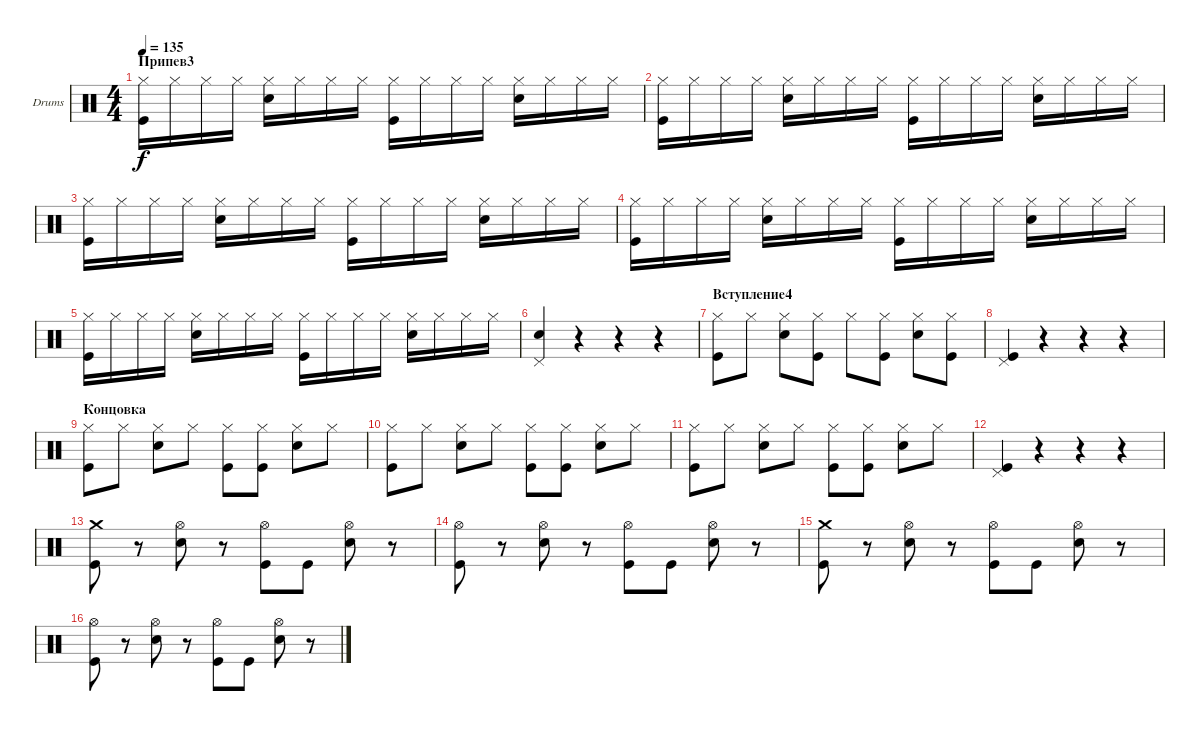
\defaultSystemsLayout 4
\bracketExtendMode groupsimilarinstruments
\firstSystemTrackNameOrientation horizontal
\otherSystemsTrackNameOrientation horizontal
\track ("Drumkit" "Drums") {instrument percussion}
\staff {score}
\articulation defaults
\ts (4 4)
\section ("" "Припев3")
\tempo 135
\clef neutral
\ks c
("Hi-Hat (closed)" "Kick (hit)").16{dy f} "Hi-Hat (closed)".16 "Hi-Hat (closed)".16 "Hi-Hat (closed)".16 ("Hi-Hat (closed)" "Snare (hit) 2").16 "Hi-Hat (closed)".16 "Hi-Hat (closed)".16 "Hi-Hat (closed)".16 ("Hi-Hat (closed)" "Kick (hit)").16 "Hi-Hat (closed)".16 "Hi-Hat (closed)".16 "Hi-Hat (closed)".16 ("Hi-Hat (closed)" "Snare (hit) 2").16 "Hi-Hat (closed)".16 "Hi-Hat (closed)".16 "Hi-Hat (closed)".16 |
("Hi-Hat (closed)" "Kick (hit)").16 "Hi-Hat (closed)".16 "Hi-Hat (closed)".16 "Hi-Hat (closed)".16 ("Hi-Hat (closed)" "Snare (hit) 2").16 "Hi-Hat (closed)".16 "Hi-Hat (closed)".16 "Hi-Hat (closed)".16 ("Hi-Hat (closed)" "Kick (hit)").16 "Hi-Hat (closed)".16 "Hi-Hat (closed)".16 "Hi-Hat (closed)".16 ("Hi-Hat (closed)" "Snare (hit) 2").16 "Hi-Hat (closed)".16 "Hi-Hat (closed)".16 "Hi-Hat (closed)".16 |
("Hi-Hat (closed)" "Kick (hit)").16 "Hi-Hat (closed)".16 "Hi-Hat (closed)".16 "Hi-Hat (closed)".16 ("Hi-Hat (closed)" "Snare (hit) 2").16 "Hi-Hat (closed)".16 "Hi-Hat (closed)".16 "Hi-Hat (closed)".16 ("Hi-Hat (closed)" "Kick (hit)").16 "Hi-Hat (closed)".16 "Hi-Hat (closed)".16 "Hi-Hat (closed)".16 ("Hi-Hat (closed)" "Snare (hit) 2").16 "Hi-Hat (closed)".16 "Hi-Hat (closed)".16 "Hi-Hat (closed)".16 |
("Hi-Hat (closed)" "Kick (hit)").16 "Hi-Hat (closed)".16 "Hi-Hat (closed)".16 "Hi-Hat (closed)".16 ("Hi-Hat (closed)" "Snare (hit) 2").16 "Hi-Hat (closed)".16 "Hi-Hat (closed)".16 "Hi-Hat (closed)".16 ("Hi-Hat (closed)" "Kick (hit)").16 "Hi-Hat (closed)".16 "Hi-Hat (closed)".16 "Hi-Hat (closed)".16 ("Hi-Hat (closed)" "Snare (hit) 2").16 "Hi-Hat (closed)".16 "Hi-Hat (closed)".16 "Hi-Hat (closed)".16 |
("Hi-Hat (closed)" "Kick (hit)").16 "Hi-Hat (closed)".16 "Hi-Hat (closed)".16 "Hi-Hat (closed)".16 ("Hi-Hat (closed)" "Snare (hit) 2").16 "Hi-Hat (closed)".16 "Hi-Hat (closed)".16 "Hi-Hat (closed)".16 ("Hi-Hat (closed)" "Kick (hit)").16 "Hi-Hat (closed)".16 "Hi-Hat (closed)".16 "Hi-Hat (closed)".16 ("Hi-Hat (closed)" "Snare (hit) 2").16 "Hi-Hat (closed)".16 "Hi-Hat (closed)".16 "Hi-Hat (closed)".16 |
("Snare (hit) 2" "Pedal Hi-Hat (hit)").4 r.4 r.4 r.4 |
\section ("" "Вступление4")
("Hi-Hat (closed)" "Kick (hit)").8 "Hi-Hat (closed)".8 ("Hi-Hat (closed)" "Snare (hit) 2").8 ("Hi-Hat (closed)" "Kick (hit)").8 "Hi-Hat (closed)".8 ("Hi-Hat (closed)" "Kick (hit)").8 ("Hi-Hat (closed)" "Snare (hit) 2").8 ("Hi-Hat (closed)" "Kick (hit)").8 |
("Kick (hit)" "Pedal Hi-Hat (hit)").4 r.4 r.4 r.4 |
\section ("" "Концовка")
("Hi-Hat (closed)" "Kick (hit)").8 "Hi-Hat (closed)".8 ("Hi-Hat (closed)" "Snare (hit) 2").8 "Hi-Hat (closed)".8 ("Hi-Hat (closed)" "Kick (hit)").8 ("Hi-Hat (closed)" "Kick (hit)").8 ("Hi-Hat (closed)" "Snare (hit) 2").8 "Hi-Hat (closed)".8 |
("Hi-Hat (closed)" "Kick (hit)").8 "Hi-Hat (closed)".8 ("Hi-Hat (closed)" "Snare (hit) 2").8 "Hi-Hat (closed)".8 ("Hi-Hat (closed)" "Kick (hit)").8 ("Hi-Hat (closed)" "Kick (hit)").8 ("Hi-Hat (closed)" "Snare (hit) 2").8 "Hi-Hat (closed)".8 |
("Hi-Hat (closed)" "Kick (hit)").8 "Hi-Hat (closed)".8 ("Hi-Hat (closed)" "Snare (hit) 2").8 "Hi-Hat (closed)".8 ("Hi-Hat (closed)" "Kick (hit)").8 ("Hi-Hat (closed)" "Kick (hit)").8 ("Hi-Hat (closed)" "Snare (hit) 2").8 "Hi-Hat (closed)".8 |
("Kick (hit)" "Pedal Hi-Hat (hit)").4 r.4 r.4 r.4 |
("Kick (hit)" "Crash medium (hit)").8 r.8 ("Snare (hit) 2" "Hi-Hat (open)").8 r.8 ("Kick (hit)" "Hi-Hat (open)").8 "Kick (hit)".8 ("Snare (hit) 2" "Hi-Hat (open)").8 r.8 |
("Kick (hit)" "Hi-Hat (open)").8 r.8 ("Snare (hit) 2" "Hi-Hat (open)").8 r.8 ("Kick (hit)" "Hi-Hat (open)").8 "Kick (hit)".8 ("Snare (hit) 2" "Hi-Hat (open)").8 r.8 |
("Kick (hit)" "Crash medium (hit)").8 r.8 ("Snare (hit) 2" "Hi-Hat (open)").8 r.8 ("Kick (hit)" "Hi-Hat (open)").8 "Kick (hit)".8 ("Snare (hit) 2" "Hi-Hat (open)").8 r.8 |
("Kick (hit)" "Hi-Hat (open)").8 r.8 ("Snare (hit) 2" "Hi-Hat (open)").8 r.8 ("Kick (hit)" "Hi-Hat (open)").8 "Kick (hit)".8 ("Snare (hit) 2" "Hi-Hat (open)").8 r.8
